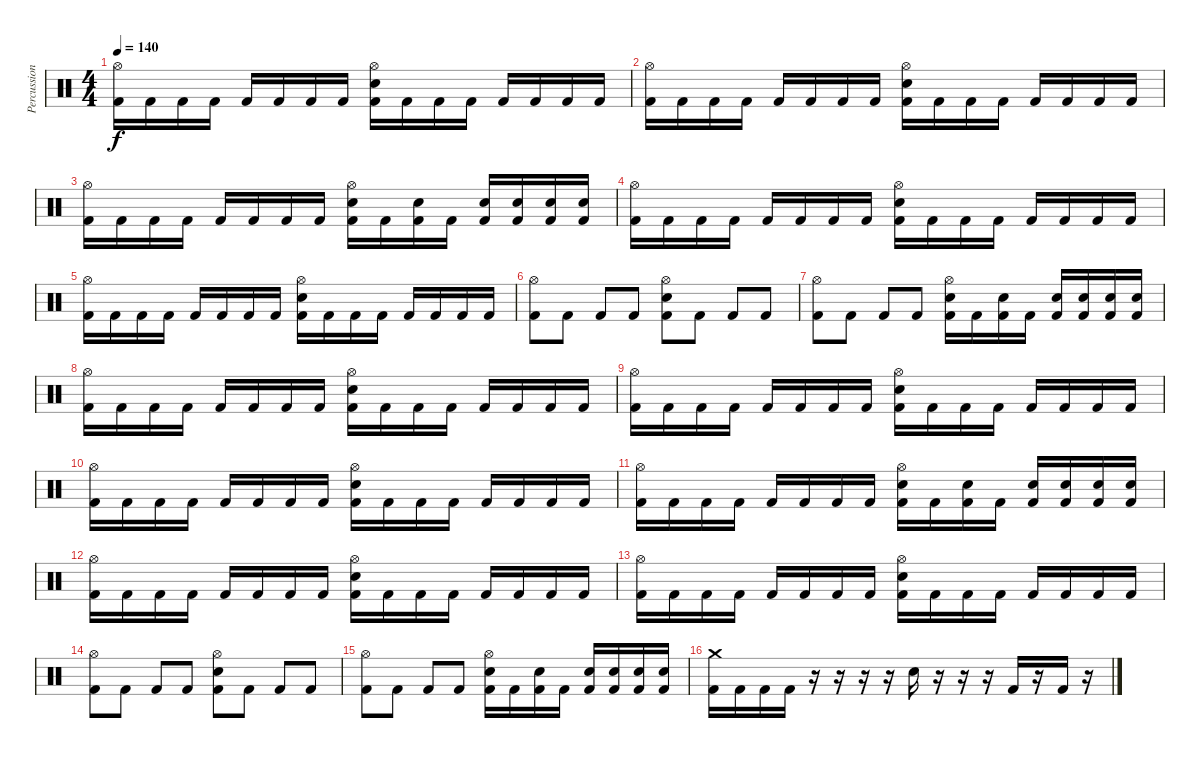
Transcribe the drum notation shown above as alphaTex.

\track ("Percussion" "Percussion") {instrument percussion}
\staff {score}
\articulation defaults
\ts (4 4)
\tempo 140
\clef neutral
\ks c
("Hi-Hat (open)" "Kick (hit) 2").16{dy f} "Kick (hit) 2".16 "Kick (hit) 2".16 "Kick (hit) 2".16 "Kick (hit) 2".16 "Kick (hit) 2".16 "Kick (hit) 2".16 "Kick (hit) 2".16 ("Hi-Hat (open)" "Snare (hit) 2" "Kick (hit) 2").16 "Kick (hit) 2".16 "Kick (hit) 2".16 "Kick (hit) 2".16 "Kick (hit) 2".16 "Kick (hit) 2".16 "Kick (hit) 2".16 "Kick (hit) 2".16 |
("Hi-Hat (open)" "Kick (hit) 2").16 "Kick (hit) 2".16 "Kick (hit) 2".16 "Kick (hit) 2".16 "Kick (hit) 2".16 "Kick (hit) 2".16 "Kick (hit) 2".16 "Kick (hit) 2".16 ("Hi-Hat (open)" "Snare (hit) 2" "Kick (hit) 2").16 "Kick (hit) 2".16 "Kick (hit) 2".16 "Kick (hit) 2".16 "Kick (hit) 2".16 "Kick (hit) 2".16 "Kick (hit) 2".16 "Kick (hit) 2".16 |
("Hi-Hat (open)" "Kick (hit) 2").16 "Kick (hit) 2".16 "Kick (hit) 2".16 "Kick (hit) 2".16 "Kick (hit) 2".16 "Kick (hit) 2".16 "Kick (hit) 2".16 "Kick (hit) 2".16 ("Hi-Hat (open)" "Snare (hit) 2" "Kick (hit) 2").16 "Kick (hit) 2".16 ("Snare (hit) 2" "Kick (hit) 2").16 "Kick (hit) 2".16 ("Snare (hit) 2" "Kick (hit) 2").16 ("Snare (hit) 2" "Kick (hit) 2").16 ("Snare (hit) 2" "Kick (hit) 2").16 ("Snare (hit) 2" "Kick (hit) 2").16 |
("Hi-Hat (open)" "Kick (hit) 2").16 "Kick (hit) 2".16 "Kick (hit) 2".16 "Kick (hit) 2".16 "Kick (hit) 2".16 "Kick (hit) 2".16 "Kick (hit) 2".16 "Kick (hit) 2".16 ("Hi-Hat (open)" "Snare (hit) 2" "Kick (hit) 2").16 "Kick (hit) 2".16 "Kick (hit) 2".16 "Kick (hit) 2".16 "Kick (hit) 2".16 "Kick (hit) 2".16 "Kick (hit) 2".16 "Kick (hit) 2".16 |
("Hi-Hat (open)" "Kick (hit) 2").16 "Kick (hit) 2".16 "Kick (hit) 2".16 "Kick (hit) 2".16 "Kick (hit) 2".16 "Kick (hit) 2".16 "Kick (hit) 2".16 "Kick (hit) 2".16 ("Hi-Hat (open)" "Snare (hit) 2" "Kick (hit) 2").16 "Kick (hit) 2".16 "Kick (hit) 2".16 "Kick (hit) 2".16 "Kick (hit) 2".16 "Kick (hit) 2".16 "Kick (hit) 2".16 "Kick (hit) 2".16 |
("Hi-Hat (open)" "Kick (hit) 2").8 "Kick (hit) 2".8 "Kick (hit) 2".8 "Kick (hit) 2".8 ("Hi-Hat (open)" "Snare (hit) 2" "Kick (hit) 2").8 "Kick (hit) 2".8 "Kick (hit) 2".8 "Kick (hit) 2".8 |
("Hi-Hat (open)" "Kick (hit) 2").8 "Kick (hit) 2".8 "Kick (hit) 2".8 "Kick (hit) 2".8 ("Hi-Hat (open)" "Snare (hit) 2" "Kick (hit) 2").16 "Kick (hit) 2".16 ("Snare (hit) 2" "Kick (hit) 2").16 "Kick (hit) 2".16 ("Snare (hit) 2" "Kick (hit) 2").16 ("Snare (hit) 2" "Kick (hit) 2").16 ("Snare (hit) 2" "Kick (hit) 2").16 ("Snare (hit) 2" "Kick (hit) 2").16 |
("Hi-Hat (open)" "Kick (hit) 2").16 "Kick (hit) 2".16 "Kick (hit) 2".16 "Kick (hit) 2".16 "Kick (hit) 2".16 "Kick (hit) 2".16 "Kick (hit) 2".16 "Kick (hit) 2".16 ("Hi-Hat (open)" "Snare (hit) 2" "Kick (hit) 2").16 "Kick (hit) 2".16 "Kick (hit) 2".16 "Kick (hit) 2".16 "Kick (hit) 2".16 "Kick (hit) 2".16 "Kick (hit) 2".16 "Kick (hit) 2".16 |
("Hi-Hat (open)" "Kick (hit) 2").16 "Kick (hit) 2".16 "Kick (hit) 2".16 "Kick (hit) 2".16 "Kick (hit) 2".16 "Kick (hit) 2".16 "Kick (hit) 2".16 "Kick (hit) 2".16 ("Hi-Hat (open)" "Snare (hit) 2" "Kick (hit) 2").16 "Kick (hit) 2".16 "Kick (hit) 2".16 "Kick (hit) 2".16 "Kick (hit) 2".16 "Kick (hit) 2".16 "Kick (hit) 2".16 "Kick (hit) 2".16 |
("Hi-Hat (open)" "Kick (hit) 2").16 "Kick (hit) 2".16 "Kick (hit) 2".16 "Kick (hit) 2".16 "Kick (hit) 2".16 "Kick (hit) 2".16 "Kick (hit) 2".16 "Kick (hit) 2".16 ("Hi-Hat (open)" "Snare (hit) 2" "Kick (hit) 2").16 "Kick (hit) 2".16 "Kick (hit) 2".16 "Kick (hit) 2".16 "Kick (hit) 2".16 "Kick (hit) 2".16 "Kick (hit) 2".16 "Kick (hit) 2".16 |
("Hi-Hat (open)" "Kick (hit) 2").16 "Kick (hit) 2".16 "Kick (hit) 2".16 "Kick (hit) 2".16 "Kick (hit) 2".16 "Kick (hit) 2".16 "Kick (hit) 2".16 "Kick (hit) 2".16 ("Hi-Hat (open)" "Snare (hit) 2" "Kick (hit) 2").16 "Kick (hit) 2".16 ("Snare (hit) 2" "Kick (hit) 2").16 "Kick (hit) 2".16 ("Snare (hit) 2" "Kick (hit) 2").16 ("Snare (hit) 2" "Kick (hit) 2").16 ("Snare (hit) 2" "Kick (hit) 2").16 ("Snare (hit) 2" "Kick (hit) 2").16 |
("Hi-Hat (open)" "Kick (hit) 2").16 "Kick (hit) 2".16 "Kick (hit) 2".16 "Kick (hit) 2".16 "Kick (hit) 2".16 "Kick (hit) 2".16 "Kick (hit) 2".16 "Kick (hit) 2".16 ("Hi-Hat (open)" "Snare (hit) 2" "Kick (hit) 2").16 "Kick (hit) 2".16 "Kick (hit) 2".16 "Kick (hit) 2".16 "Kick (hit) 2".16 "Kick (hit) 2".16 "Kick (hit) 2".16 "Kick (hit) 2".16 |
("Hi-Hat (open)" "Kick (hit) 2").16 "Kick (hit) 2".16 "Kick (hit) 2".16 "Kick (hit) 2".16 "Kick (hit) 2".16 "Kick (hit) 2".16 "Kick (hit) 2".16 "Kick (hit) 2".16 ("Hi-Hat (open)" "Snare (hit) 2" "Kick (hit) 2").16 "Kick (hit) 2".16 "Kick (hit) 2".16 "Kick (hit) 2".16 "Kick (hit) 2".16 "Kick (hit) 2".16 "Kick (hit) 2".16 "Kick (hit) 2".16 |
("Hi-Hat (open)" "Kick (hit) 2").8 "Kick (hit) 2".8 "Kick (hit) 2".8 "Kick (hit) 2".8 ("Hi-Hat (open)" "Snare (hit) 2" "Kick (hit) 2").8 "Kick (hit) 2".8 "Kick (hit) 2".8 "Kick (hit) 2".8 |
("Hi-Hat (open)" "Kick (hit) 2").8 "Kick (hit) 2".8 "Kick (hit) 2".8 "Kick (hit) 2".8 ("Hi-Hat (open)" "Snare (hit) 2" "Kick (hit) 2").16 "Kick (hit) 2".16 ("Snare (hit) 2" "Kick (hit) 2").16 "Kick (hit) 2".16 ("Snare (hit) 2" "Kick (hit) 2").16 ("Snare (hit) 2" "Kick (hit) 2").16 ("Snare (hit) 2" "Kick (hit) 2").16 ("Snare (hit) 2" "Kick (hit) 2").16 |
("Crash medium (hit)" "Kick (hit) 2").16 "Kick (hit) 2".16 "Kick (hit) 2".16 "Kick (hit) 2".16 r.16 r.16 r.16 r.16 "Snare (hit) 2".16 r.16 r.16 r.16 "Kick (hit) 2".16 r.16 "Kick (hit) 2".16 r.16
